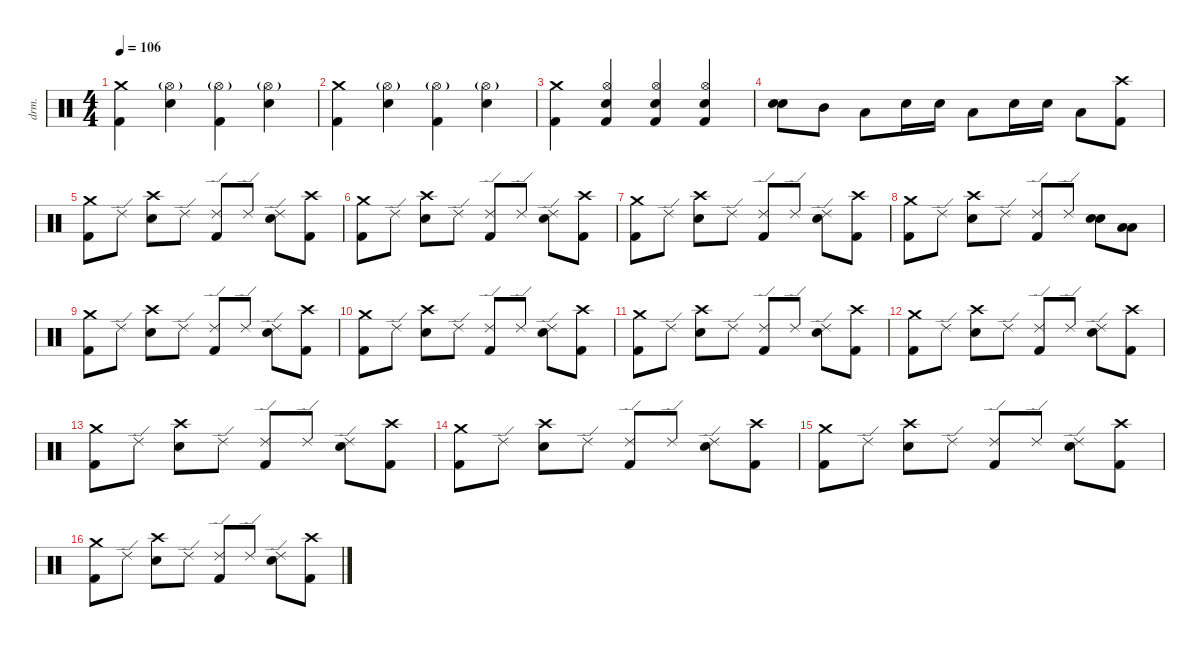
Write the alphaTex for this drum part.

\defaultSystemsLayout 4
\hideDynamics
\bracketExtendMode nobrackets
\track ("Lee Kerslake" "drm.") {solo instrument percussion}
\staff {score}
\articulation defaults
\ts (4 4)
\tempo 106
\clef neutral
\ks c
("Crash medium (hit)" "Kick (hit) 2").4{dy f} ("Hi-Hat (open)"{g} "Snare (hit) 2").4 ("Hi-Hat (open)"{g} "Kick (hit) 2").4 ("Hi-Hat (open)"{g} "Snare (hit) 2").4 |
("Crash medium (hit)" "Kick (hit) 2").4 ("Hi-Hat (open)"{g} "Snare (hit) 2").4 ("Hi-Hat (open)"{g} "Kick (hit) 2").4 ("Hi-Hat (open)"{g} "Snare (hit) 2").4 |
("Crash medium (hit)" "Kick (hit) 2").4 ("Hi-Hat (open)" "Snare (hit) 2" "Kick (hit) 2").4 ("Hi-Hat (open)" "Snare (hit) 2" "Kick (hit) 2").4 ("Hi-Hat (open)" "Snare (hit) 2" "Kick (hit) 2").4 |
("Snare (hit) 2" "Snare (hit) 2").8 "Mid Tom (hit)".8 "Low Tom (hit)".8 "Snare (hit) 2".16 "Snare (hit) 2".16 "Low Tom (hit)".8 "Snare (hit) 2".16 "Snare (hit) 2".16 "Low Tom (hit)".8 ("Crash high (hit)" "Kick (hit) 2").8 |
("Crash medium (hit)" "Kick (hit) 2").8 "Ride (edge) 2".8 ("Crash high (hit)" "Snare (hit) 2").8 "Ride (edge) 2".8 ("Ride (edge) 2" "Kick (hit) 2").8 "Ride (edge) 2".8 ("Ride (edge) 2" "Snare (hit) 2").8 ("Crash high (hit)" "Kick (hit) 2").8 |
("Crash medium (hit)" "Kick (hit) 2").8 "Ride (edge) 2".8 ("Crash high (hit)" "Snare (hit) 2").8 "Ride (edge) 2".8 ("Ride (edge) 2" "Kick (hit) 2").8 "Ride (edge) 2".8 ("Ride (edge) 2" "Snare (hit) 2").8 ("Crash high (hit)" "Kick (hit) 2").8 |
("Crash medium (hit)" "Kick (hit) 2").8 "Ride (edge) 2".8 ("Crash high (hit)" "Snare (hit) 2").8 "Ride (edge) 2".8 ("Ride (edge) 2" "Kick (hit) 2").8 "Ride (edge) 2".8 ("Ride (edge) 2" "Snare (hit) 2").8 ("Crash high (hit)" "Kick (hit) 2").8 |
("Crash medium (hit)" "Kick (hit) 2").8 "Ride (edge) 2".8 ("Crash high (hit)" "Snare (hit) 2").8 "Ride (edge) 2".8 ("Ride (edge) 2" "Kick (hit) 2").8 "Ride (edge) 2".8 ("Snare (hit) 2" "Snare (hit) 2").8 ("Low Tom (hit)" "Low Tom (hit)").8 |
("Crash medium (hit)" "Kick (hit) 2").8 "Ride (edge) 2".8 ("Crash high (hit)" "Snare (hit) 2").8 "Ride (edge) 2".8 ("Ride (edge) 2" "Kick (hit) 2").8 "Ride (edge) 2".8 ("Ride (edge) 2" "Snare (hit) 2").8 ("Crash high (hit)" "Kick (hit) 2").8 |
("Crash medium (hit)" "Kick (hit) 2").8 "Ride (edge) 2".8 ("Crash high (hit)" "Snare (hit) 2").8 "Ride (edge) 2".8 ("Ride (edge) 2" "Kick (hit) 2").8 "Ride (edge) 2".8 ("Ride (edge) 2" "Snare (hit) 2").8 ("Crash high (hit)" "Kick (hit) 2").8 |
("Crash medium (hit)" "Kick (hit) 2").8 "Ride (edge) 2".8 ("Crash high (hit)" "Snare (hit) 2").8 "Ride (edge) 2".8 ("Ride (edge) 2" "Kick (hit) 2").8 "Ride (edge) 2".8 ("Ride (edge) 2" "Snare (hit) 2").8 ("Crash high (hit)" "Kick (hit) 2").8 |
("Crash medium (hit)" "Kick (hit) 2").8 "Ride (edge) 2".8 ("Crash high (hit)" "Snare (hit) 2").8 "Ride (edge) 2".8 ("Ride (edge) 2" "Kick (hit) 2").8 "Ride (edge) 2".8 ("Ride (edge) 2" "Snare (hit) 2").8 ("Crash high (hit)" "Kick (hit) 2").8 |
("Crash medium (hit)" "Kick (hit) 2").8 "Ride (edge) 2".8 ("Crash high (hit)" "Snare (hit) 2").8 "Ride (edge) 2".8 ("Ride (edge) 2" "Kick (hit) 2").8 "Ride (edge) 2".8 ("Ride (edge) 2" "Snare (hit) 2").8 ("Crash high (hit)" "Kick (hit) 2").8 |
("Crash medium (hit)" "Kick (hit) 2").8 "Ride (edge) 2".8 ("Crash high (hit)" "Snare (hit) 2").8 "Ride (edge) 2".8 ("Ride (edge) 2" "Kick (hit) 2").8 "Ride (edge) 2".8 ("Ride (edge) 2" "Snare (hit) 2").8 ("Crash high (hit)" "Kick (hit) 2").8 |
("Crash medium (hit)" "Kick (hit) 2").8 "Ride (edge) 2".8 ("Crash high (hit)" "Snare (hit) 2").8 "Ride (edge) 2".8 ("Ride (edge) 2" "Kick (hit) 2").8 "Ride (edge) 2".8 ("Ride (edge) 2" "Snare (hit) 2").8 ("Crash high (hit)" "Kick (hit) 2").8 |
("Crash medium (hit)" "Kick (hit) 2").8 "Ride (edge) 2".8 ("Crash high (hit)" "Snare (hit) 2").8 "Ride (edge) 2".8 ("Ride (edge) 2" "Kick (hit) 2").8 "Ride (edge) 2".8 ("Ride (edge) 2" "Snare (hit) 2").8 ("Crash high (hit)" "Kick (hit) 2").8
